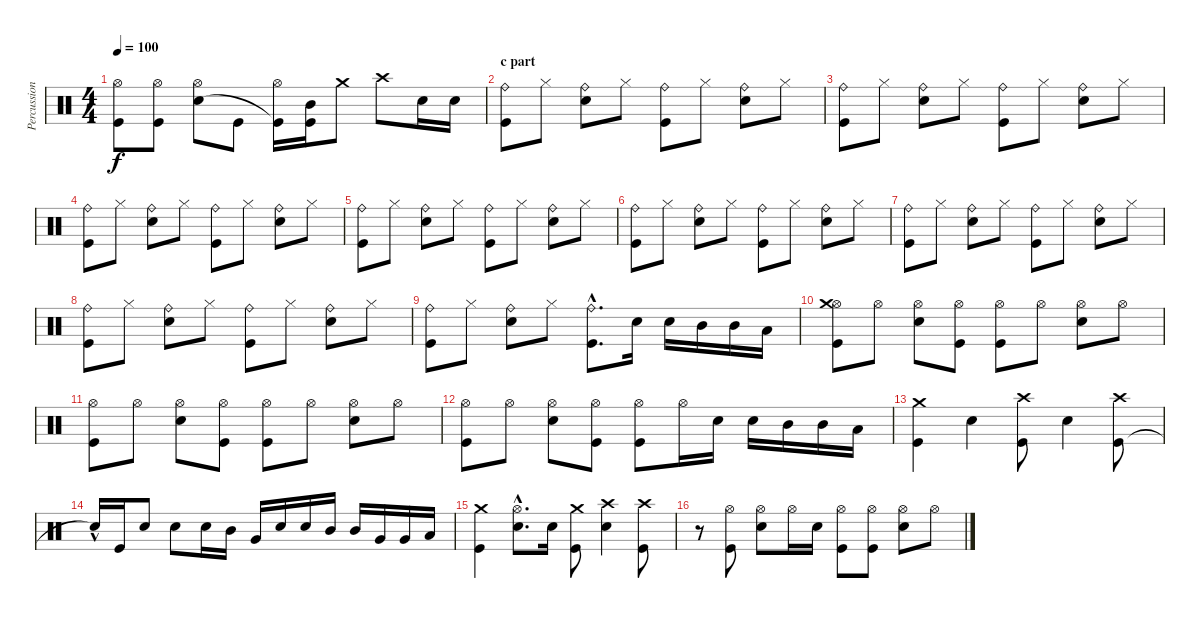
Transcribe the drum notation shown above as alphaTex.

\track ("Percussion" "Percussion") {instrument percussion}
\staff {score}
\articulation defaults
\ts (4 4)
\tempo 100
\clef neutral
\ks c
("Hi-Hat (open)" "Kick (hit)").8{dy f} ("Hi-Hat (open)" "Kick (hit)").8 ("Hi-Hat (open)" "Snare (hit) 2").8 "Kick (hit)".8 ("Hi-Hat (open)" "Kick (hit)"{t}).16 ("Kick (hit)" "Mid Tom (hit)").16 "Crash medium (hit)".8 "Crash high (hit)".8 "Snare (hit) 2".16 "Snare (hit) 2".16 |
\section ("" "c part")
("Kick (hit)" "Ride (bell)").8 "Hi-Hat (closed)".8 ("Snare (hit) 2" "Ride (bell)").8 "Hi-Hat (closed)".8 ("Kick (hit)" "Ride (bell)").8 "Hi-Hat (closed)".8 ("Snare (hit) 2" "Ride (bell)").8 "Hi-Hat (closed)".8 |
("Kick (hit)" "Ride (bell)").8 "Hi-Hat (closed)".8 ("Snare (hit) 2" "Ride (bell)").8 "Hi-Hat (closed)".8 ("Kick (hit)" "Ride (bell)").8 "Hi-Hat (closed)".8 ("Snare (hit) 2" "Ride (bell)").8 "Hi-Hat (closed)".8 |
("Kick (hit)" "Ride (bell)").8 "Hi-Hat (closed)".8 ("Snare (hit) 2" "Ride (bell)").8 "Hi-Hat (closed)".8 ("Kick (hit)" "Ride (bell)").8 "Hi-Hat (closed)".8 ("Snare (hit) 2" "Ride (bell)").8 "Hi-Hat (closed)".8 |
("Kick (hit)" "Ride (bell)").8 "Hi-Hat (closed)".8 ("Snare (hit) 2" "Ride (bell)").8 "Hi-Hat (closed)".8 ("Kick (hit)" "Ride (bell)").8 "Hi-Hat (closed)".8 ("Snare (hit) 2" "Ride (bell)").8 "Hi-Hat (closed)".8 |
("Kick (hit)" "Ride (bell)").8 "Hi-Hat (closed)".8 ("Snare (hit) 2" "Ride (bell)").8 "Hi-Hat (closed)".8 ("Kick (hit)" "Ride (bell)").8 "Hi-Hat (closed)".8 ("Snare (hit) 2" "Ride (bell)").8 "Hi-Hat (closed)".8 |
("Kick (hit)" "Ride (bell)").8 "Hi-Hat (closed)".8 ("Snare (hit) 2" "Ride (bell)").8 "Hi-Hat (closed)".8 ("Kick (hit)" "Ride (bell)").8 "Hi-Hat (closed)".8 ("Snare (hit) 2" "Ride (bell)").8 "Hi-Hat (closed)".8 |
("Kick (hit)" "Ride (bell)").8 "Hi-Hat (closed)".8 ("Snare (hit) 2" "Ride (bell)").8 "Hi-Hat (closed)".8 ("Kick (hit)" "Ride (bell)").8 "Hi-Hat (closed)".8 ("Snare (hit) 2" "Ride (bell)").8 "Hi-Hat (closed)".8 |
("Kick (hit)" "Ride (bell)").8 "Hi-Hat (closed)".8 ("Snare (hit) 2" "Ride (bell)").8 "Hi-Hat (closed)".8 ("Kick (hit)"{hac} "Ride (bell)"{hac}).8{d} "Snare (hit) 2".16 "Snare (hit) 2".16 "Mid Tom (hit)".16 "Mid Tom (hit)".16 "Low Floor Tom (hit)".16 |
("Hi-Hat (open)" "Kick (hit)" "Crash medium (hit)").8 "Hi-Hat (open)".8 ("Hi-Hat (open)" "Snare (hit) 2").8 ("Hi-Hat (open)" "Kick (hit)").8 ("Hi-Hat (open)" "Kick (hit)").8 "Hi-Hat (open)".8 ("Hi-Hat (open)" "Snare (hit) 2").8 "Hi-Hat (open)".8 |
("Hi-Hat (open)" "Kick (hit)").8 "Hi-Hat (open)".8 ("Hi-Hat (open)" "Snare (hit) 2").8 ("Hi-Hat (open)" "Kick (hit)").8 ("Hi-Hat (open)" "Kick (hit)").8 "Hi-Hat (open)".8 ("Hi-Hat (open)" "Snare (hit) 2").8 "Hi-Hat (open)".8 |
("Hi-Hat (open)" "Kick (hit)").8 "Hi-Hat (open)".8 ("Hi-Hat (open)" "Snare (hit) 2").8 ("Hi-Hat (open)" "Kick (hit)").8 ("Hi-Hat (open)" "Kick (hit)").8 "Hi-Hat (open)".16 "Snare (hit) 2".16 "Snare (hit) 2".16 "Mid Tom (hit)".16 "Mid Tom (hit)".16 "Low Floor Tom (hit)".16 |
("Kick (hit)" "Crash medium (hit)").4 "Snare (hit) 2".4 ("Kick (hit)" "Crash high (hit)").8 "Snare (hit) 2".4 ("Kick (hit)" "Crash high (hit)").8 |
"Snare (hit)"{hac t}.16 "Kick (hit)".16 "Snare (hit) 2".8 "Snare (hit) 2".8 "Snare (hit) 2".16 "Mid Tom (hit)".16 "Very Low Tom (hit)".16 "Snare (hit) 2".16 "Snare (hit) 2".16 "Mid Tom (hit)".16 "Mid Tom (hit)".16 "Very Low Tom (hit)".16 "Very Low Tom (hit)".16 "Low Floor Tom (hit)".16 |
("Kick (hit)" "Crash medium (hit)").4 ("Hi-Hat (open)"{hac} "Snare (hit) 2"{hac}).8{d} "Snare (hit) 2".16 ("Kick (hit)" "Crash medium (hit)").8 ("Snare (hit) 2" "Crash high (hit)").4 ("Kick (hit)" "Crash high (hit)").8 |
r.8 ("Hi-Hat (open)" "Kick (hit)").8 ("Hi-Hat (open)" "Snare (hit) 2").8 "Hi-Hat (open)".16 "Snare (hit) 2".16 ("Hi-Hat (open)" "Kick (hit)").8 ("Hi-Hat (open)" "Kick (hit)").8 ("Hi-Hat (open)" "Snare (hit) 2").8 "Hi-Hat (open)".8
